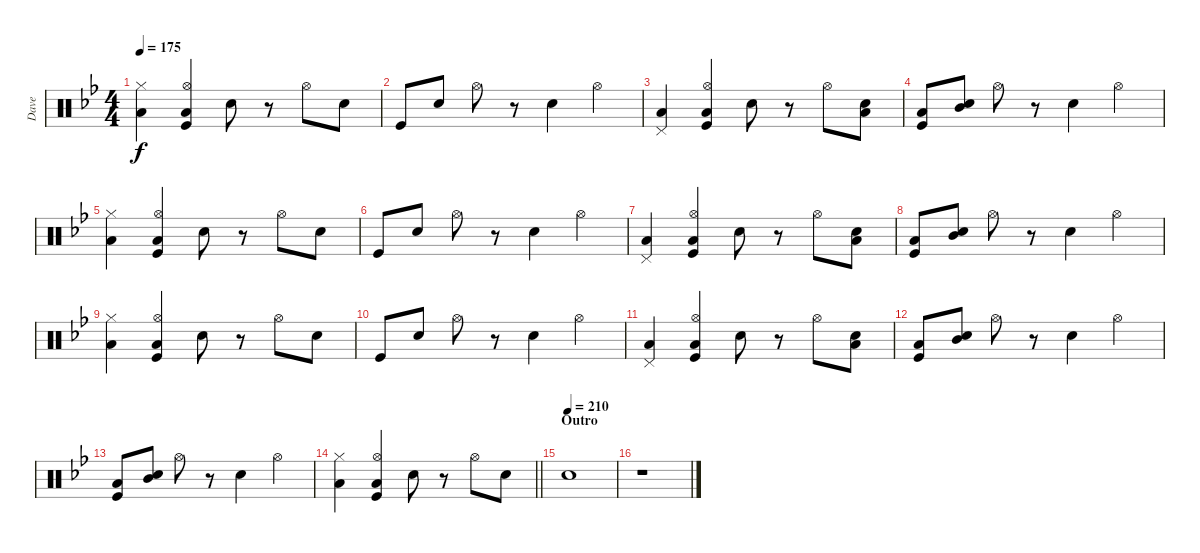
\track ("Dave" "Dave") {instrument percussion}
\staff {score}
\articulation defaults
\ts (4 4)
\tempo 175
\clef neutral
\ks gminor
("Hi-Hat (closed)" "Low Floor Tom (hit)").4{dy f} ("Hi-Hat (open)" "Low Floor Tom (hit)" "Kick (hit)").4 "Snare (hit) 2".8 r.8 "Hi-Hat (open)".8 "Snare (hit) 2".8 |
"Kick (hit)".8 "Snare (hit) 2".8 "Hi-Hat (open)".8 r.8 "Snare (hit) 2".4 "Hi-Hat (open)".4 |
("Pedal Hi-Hat (hit)" "Low Floor Tom (hit)").4 ("Hi-Hat (open)" "Low Floor Tom (hit)" "Kick (hit)").4 "Snare (hit) 2".8 r.8 "Hi-Hat (open)".8 ("Snare (hit) 2" "Low Floor Tom (hit)").8 |
("Low Tom (hit)" "Kick (hit)").8 ("Snare (hit) 2" "Mid Tom (hit)").8 "Hi-Hat (open)".8 r.8 "Snare (hit) 2".4 "Hi-Hat (open)".4 |
("Hi-Hat (closed)" "Low Floor Tom (hit)").4 ("Hi-Hat (open)" "Low Floor Tom (hit)" "Kick (hit)").4 "Snare (hit) 2".8 r.8 "Hi-Hat (open)".8 "Snare (hit) 2".8 |
"Kick (hit)".8 "Snare (hit) 2".8 "Hi-Hat (open)".8 r.8 "Snare (hit) 2".4 "Hi-Hat (open)".4 |
("Pedal Hi-Hat (hit)" "Low Floor Tom (hit)").4 ("Hi-Hat (open)" "Low Floor Tom (hit)" "Kick (hit)").4 "Snare (hit) 2".8 r.8 "Hi-Hat (open)".8 ("Snare (hit) 2" "Low Floor Tom (hit)").8 |
("Low Tom (hit)" "Kick (hit)").8 ("Snare (hit) 2" "Mid Tom (hit)").8 "Hi-Hat (open)".8 r.8 "Snare (hit) 2".4 "Hi-Hat (open)".4 |
("Hi-Hat (closed)" "Low Floor Tom (hit)").4 ("Hi-Hat (open)" "Low Floor Tom (hit)" "Kick (hit)").4 "Snare (hit) 2".8 r.8 "Hi-Hat (open)".8 "Snare (hit) 2".8 |
"Kick (hit)".8 "Snare (hit) 2".8 "Hi-Hat (open)".8 r.8 "Snare (hit) 2".4 "Hi-Hat (open)".4 |
("Pedal Hi-Hat (hit)" "Low Floor Tom (hit)").4 ("Hi-Hat (open)" "Low Floor Tom (hit)" "Kick (hit)").4 "Snare (hit) 2".8 r.8 "Hi-Hat (open)".8 ("Snare (hit) 2" "Low Floor Tom (hit)").8 |
("Low Tom (hit)" "Kick (hit)").8 ("Snare (hit) 2" "Mid Tom (hit)").8 "Hi-Hat (open)".8 r.8 "Snare (hit) 2".4 "Hi-Hat (open)".4 |
("Low Tom (hit)" "Kick (hit)").8 ("Snare (hit) 2" "Mid Tom (hit)").8 "Hi-Hat (open)".8 r.8 "Snare (hit) 2".4 "Hi-Hat (open)".4 |
\barLineRight lightlight
("Hi-Hat (closed)" "Low Floor Tom (hit)").4 ("Hi-Hat (open)" "Low Floor Tom (hit)" "Kick (hit)").4 "Snare (hit) 2".8 r.8 "Hi-Hat (open)".8 "Snare (hit) 2".8 |
\section ("" "Outro")
\tempo (210)
"Snare (hit) 2".1 |
r.1
